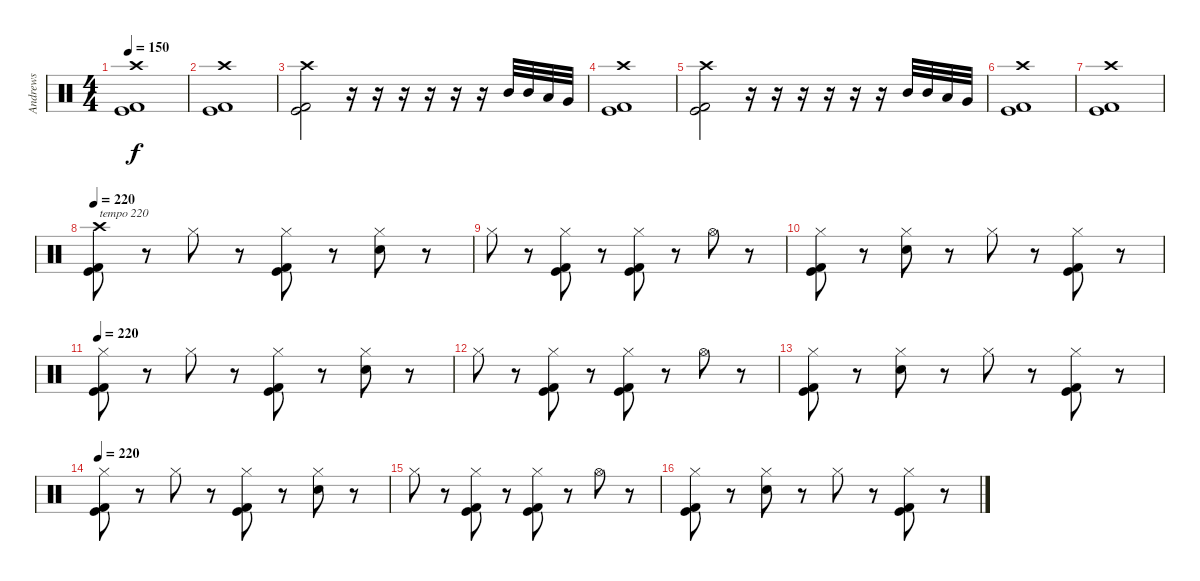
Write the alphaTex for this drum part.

\track ("Andrews" "Andrews") {instrument percussion}
\staff {score}
\articulation defaults
\ts (4 4)
\tempo 150
\clef neutral
\ks c
("Crash high (hit)" "Kick (hit) 2" "Kick (hit)").1{dy f} |
("Crash high (hit)" "Kick (hit) 2" "Kick (hit)").1 |
("Crash high (hit)" "Kick (hit) 2" "Kick (hit)").2 r.16 r.16 r.16 r.16 r.16 r.16 "Mid Tom (hit)".32 "Mid Tom (hit)".32 "Low Tom (hit)".32 "Very Low Tom (hit)".32 |
("Crash high (hit)" "Kick (hit) 2" "Kick (hit)").1 |
("Crash high (hit)" "Kick (hit) 2" "Kick (hit)").2 r.16 r.16 r.16 r.16 r.16 r.16 "Mid Tom (hit)".32 "Mid Tom (hit)".32 "Low Tom (hit)".32 "Very Low Tom (hit)".32 |
("Crash high (hit)" "Kick (hit) 2" "Kick (hit)").1 |
("Crash high (hit)" "Kick (hit) 2" "Kick (hit)").1 |
\tempo 220
("Crash high (hit)" "Kick (hit) 2" "Kick (hit)").8{txt "tempo 220"} r.8 "Hi-Hat (closed)".8 r.8 ("Hi-Hat (closed)" "Kick (hit) 2" "Kick (hit)").8 r.8 ("Electric Snare (hit)" "Hi-Hat (closed)").8 r.8 |
"Hi-Hat (closed)".8 r.8 ("Hi-Hat (closed)" "Kick (hit) 2" "Kick (hit)").8 r.8 ("Hi-Hat (closed)" "Kick (hit) 2" "Kick (hit)").8 r.8 "Hi-Hat (open)".8 r.8 |
("Hi-Hat (closed)" "Kick (hit) 2" "Kick (hit)").8 r.8 ("Electric Snare (hit)" "Hi-Hat (closed)").8 r.8 "Hi-Hat (closed)".8 r.8 ("Hi-Hat (closed)" "Kick (hit) 2" "Kick (hit)").8 r.8 |
\tempo 220
("Hi-Hat (closed)" "Kick (hit) 2" "Kick (hit)").8 r.8 "Hi-Hat (closed)".8 r.8 ("Hi-Hat (closed)" "Kick (hit) 2" "Kick (hit)").8 r.8 ("Electric Snare (hit)" "Hi-Hat (closed)").8 r.8 |
"Hi-Hat (closed)".8 r.8 ("Hi-Hat (closed)" "Kick (hit) 2" "Kick (hit)").8 r.8 ("Hi-Hat (closed)" "Kick (hit) 2" "Kick (hit)").8 r.8 "Hi-Hat (open)".8 r.8 |
("Hi-Hat (closed)" "Kick (hit) 2" "Kick (hit)").8 r.8 ("Electric Snare (hit)" "Hi-Hat (closed)").8 r.8 "Hi-Hat (closed)".8 r.8 ("Hi-Hat (closed)" "Kick (hit) 2" "Kick (hit)").8 r.8 |
\tempo 220
("Hi-Hat (closed)" "Kick (hit) 2" "Kick (hit)").8 r.8 "Hi-Hat (closed)".8 r.8 ("Hi-Hat (closed)" "Kick (hit) 2" "Kick (hit)").8 r.8 ("Electric Snare (hit)" "Hi-Hat (closed)").8 r.8 |
"Hi-Hat (closed)".8 r.8 ("Hi-Hat (closed)" "Kick (hit) 2" "Kick (hit)").8 r.8 ("Hi-Hat (closed)" "Kick (hit) 2" "Kick (hit)").8 r.8 "Hi-Hat (open)".8 r.8 |
("Hi-Hat (closed)" "Kick (hit) 2" "Kick (hit)").8 r.8 ("Electric Snare (hit)" "Hi-Hat (closed)").8 r.8 "Hi-Hat (closed)".8 r.8 ("Hi-Hat (closed)" "Kick (hit) 2" "Kick (hit)").8 r.8
